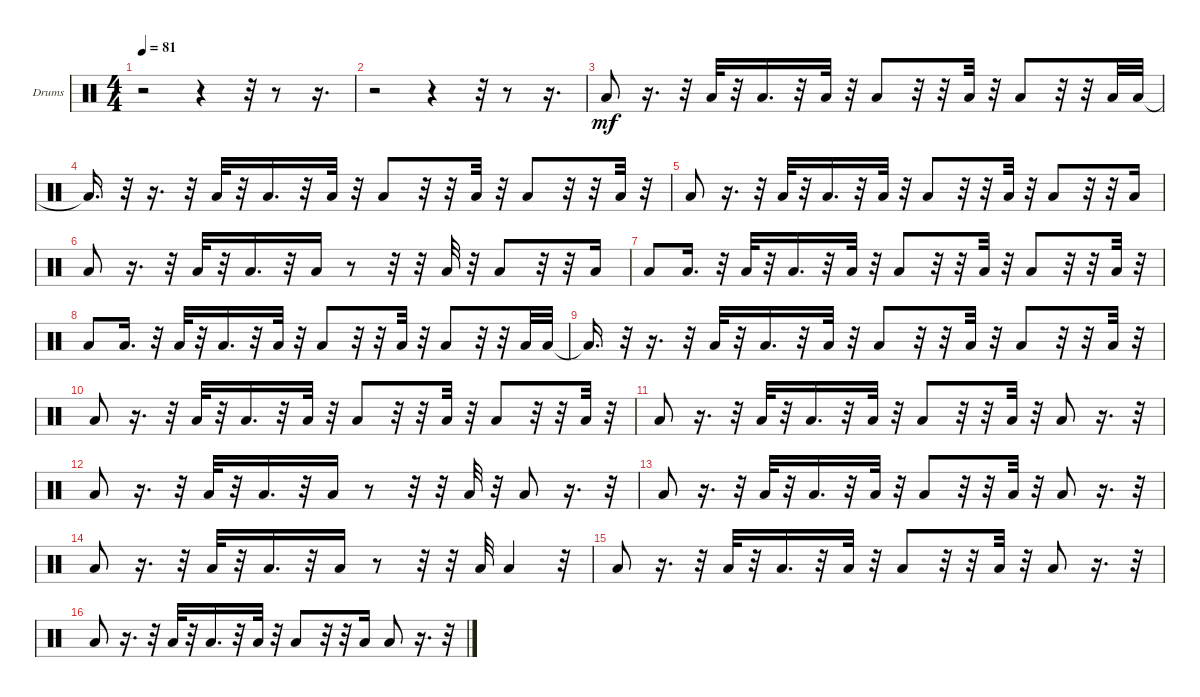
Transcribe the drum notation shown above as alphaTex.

\bracketExtendMode groupsimilarinstruments
\firstSystemTrackNameOrientation horizontal
\otherSystemsTrackNameOrientation horizontal
\track ("DRUMS" "Drums") {instrument percussion}
\staff {score}
\articulation defaults
\ts (4 4)
\tempo 81
\clef neutral
\ks c
r.2{dy mf} r.4 r.32 r.8 r.16{d} |
r.2 r.4 r.32 r.8 r.16{d} |
"Low Tom (hit)".8 r.16{d} r.32 "Low Tom (hit)".32 r.32 "Low Tom (hit)".16{d} r.32 "Low Tom (hit)".32 r.32 "Low Tom (hit)".8 r.32 r.32 "Low Tom (hit)".32 r.32 "Low Tom (hit)".8 r.32 r.32 "Low Tom (hit)".32 "Low Tom (hit)".32 |
"Low Tom (hit)"{t}.16{d} r.32 r.16{d} r.32 "Low Tom (hit)".32 r.32 "Low Tom (hit)".16{d} r.32 "Low Tom (hit)".32 r.32 "Low Tom (hit)".8 r.32 r.32 "Low Tom (hit)".32 r.32 "Low Tom (hit)".8 r.32 r.32 "Low Tom (hit)".32 r.32 |
"Low Tom (hit)".8 r.16{d} r.32 "Low Tom (hit)".32 r.32 "Low Tom (hit)".16{d} r.32 "Low Tom (hit)".32 r.32 "Low Tom (hit)".8 r.32 r.32 "Low Tom (hit)".32 r.32 "Low Tom (hit)".8 r.32 r.32 "Low Tom (hit)".16 |
"Low Tom (hit)".8 r.16{d} r.32 "Low Tom (hit)".32 r.32 "Low Tom (hit)".16{d} r.32 "Low Tom (hit)".16 r.8 r.32 r.32 "Low Tom (hit)".32 r.32 "Low Tom (hit)".8 r.32 r.32 "Low Tom (hit)".16 |
"Low Tom (hit)".8 "Low Tom (hit)".16{d} r.32 "Low Tom (hit)".32 r.32 "Low Tom (hit)".16{d} r.32 "Low Tom (hit)".32 r.32 "Low Tom (hit)".8 r.32 r.32 "Low Tom (hit)".32 r.32 "Low Tom (hit)".8 r.32 r.32 "Low Tom (hit)".32 r.32 |
"Low Tom (hit)".8 "Low Tom (hit)".16{d} r.32 "Low Tom (hit)".32 r.32 "Low Tom (hit)".16{d} r.32 "Low Tom (hit)".32 r.32 "Low Tom (hit)".8 r.32 r.32 "Low Tom (hit)".32 r.32 "Low Tom (hit)".8 r.32 r.32 "Low Tom (hit)".32 "Low Tom (hit)".32 |
"Low Tom (hit)"{t}.16{d} r.32 r.16{d} r.32 "Low Tom (hit)".32 r.32 "Low Tom (hit)".16{d} r.32 "Low Tom (hit)".32 r.32 "Low Tom (hit)".8 r.32 r.32 "Low Tom (hit)".32 r.32 "Low Tom (hit)".8 r.32 r.32 "Low Tom (hit)".32 r.32 |
"Low Tom (hit)".8 r.16{d} r.32 "Low Tom (hit)".32 r.32 "Low Tom (hit)".16{d} r.32 "Low Tom (hit)".32 r.32 "Low Tom (hit)".8 r.32 r.32 "Low Tom (hit)".32 r.32 "Low Tom (hit)".8 r.32 r.32 "Low Tom (hit)".32 r.32 |
"Low Tom (hit)".8 r.16{d} r.32 "Low Tom (hit)".32 r.32 "Low Tom (hit)".16{d} r.32 "Low Tom (hit)".32 r.32 "Low Tom (hit)".8 r.32 r.32 "Low Tom (hit)".32 r.32 "Low Tom (hit)".8 r.16{d} r.32 |
"Low Tom (hit)".8 r.16{d} r.32 "Low Tom (hit)".32 r.32 "Low Tom (hit)".16{d} r.32 "Low Tom (hit)".16 r.8 r.32 r.32 "Low Tom (hit)".32 r.32 "Low Tom (hit)".8 r.16{d} r.32 |
"Low Tom (hit)".8 r.16{d} r.32 "Low Tom (hit)".32 r.32 "Low Tom (hit)".16{d} r.32 "Low Tom (hit)".32 r.32 "Low Tom (hit)".8 r.32 r.32 "Low Tom (hit)".32 r.32 "Low Tom (hit)".8 r.16{d} r.32 |
"Low Tom (hit)".8 r.16{d} r.32 "Low Tom (hit)".32 r.32 "Low Tom (hit)".16{d} r.32 "Low Tom (hit)".16 r.8 r.32 r.32 "Low Tom (hit)".32 "Low Tom (hit)".4 r.32 |
"Low Tom (hit)".8 r.16{d} r.32 "Low Tom (hit)".32 r.32 "Low Tom (hit)".16{d} r.32 "Low Tom (hit)".32 r.32 "Low Tom (hit)".8 r.32 r.32 "Low Tom (hit)".32 r.32 "Low Tom (hit)".8 r.16{d} r.32 |
"Low Tom (hit)".8 r.16{d} r.32 "Low Tom (hit)".32 r.32 "Low Tom (hit)".16{d} r.32 "Low Tom (hit)".32 r.32 "Low Tom (hit)".8 r.32 r.32 "Low Tom (hit)".16 "Low Tom (hit)".8 r.16{d} r.32
